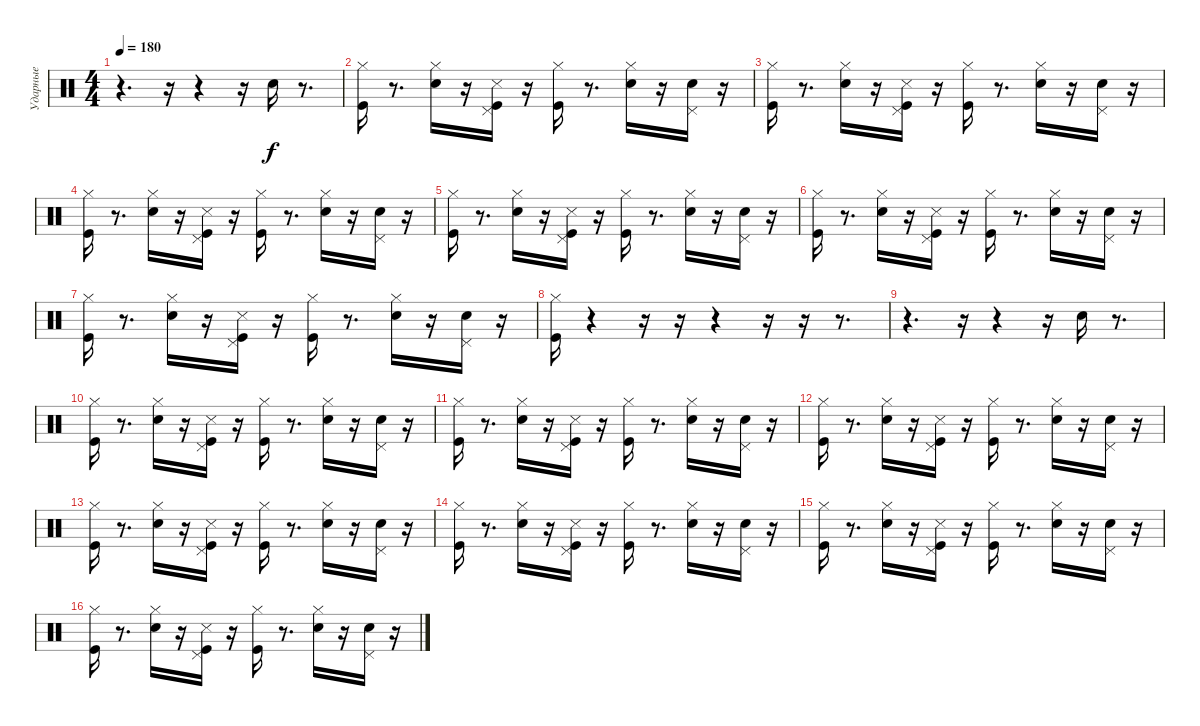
\track ("Ударные" "Ударные") {instrument percussion}
\staff {score}
\articulation defaults
\ts (4 4)
\tempo 180
\clef neutral
\ks c
r.4{d dy f} r.16 r.4 r.16 "Snare (hit) 2".16 r.8{d} |
("Hi-Hat (closed)" "Kick (hit)").16 r.8{d} ("Hi-Hat (closed)" "Snare (hit) 2").16 r.16 ("Snare (side stick) 3" "Kick (hit)" "Pedal Hi-Hat (hit)").16 r.16 ("Hi-Hat (closed)" "Kick (hit)").16 r.8{d} ("Hi-Hat (closed)" "Snare (hit) 2").16 r.16 ("Snare (hit) 2" "Pedal Hi-Hat (hit)").16 r.16 |
("Hi-Hat (closed)" "Kick (hit)").16 r.8{d} ("Hi-Hat (closed)" "Snare (hit) 2").16 r.16 ("Snare (side stick) 3" "Kick (hit)" "Pedal Hi-Hat (hit)").16 r.16 ("Hi-Hat (closed)" "Kick (hit)").16 r.8{d} ("Hi-Hat (closed)" "Snare (hit) 2").16 r.16 ("Snare (hit) 2" "Pedal Hi-Hat (hit)").16 r.16 |
("Hi-Hat (closed)" "Kick (hit)").16 r.8{d} ("Hi-Hat (closed)" "Snare (hit) 2").16 r.16 ("Snare (side stick) 3" "Kick (hit)" "Pedal Hi-Hat (hit)").16 r.16 ("Hi-Hat (closed)" "Kick (hit)").16 r.8{d} ("Hi-Hat (closed)" "Snare (hit) 2").16 r.16 ("Snare (hit) 2" "Pedal Hi-Hat (hit)").16 r.16 |
("Hi-Hat (closed)" "Kick (hit)").16 r.8{d} ("Hi-Hat (closed)" "Snare (hit) 2").16 r.16 ("Snare (side stick) 3" "Kick (hit)" "Pedal Hi-Hat (hit)").16 r.16 ("Hi-Hat (closed)" "Kick (hit)").16 r.8{d} ("Hi-Hat (closed)" "Snare (hit) 2").16 r.16 ("Snare (hit) 2" "Pedal Hi-Hat (hit)").16 r.16 |
("Hi-Hat (closed)" "Kick (hit)").16 r.8{d} ("Hi-Hat (closed)" "Snare (hit) 2").16 r.16 ("Snare (side stick) 3" "Kick (hit)" "Pedal Hi-Hat (hit)").16 r.16 ("Hi-Hat (closed)" "Kick (hit)").16 r.8{d} ("Hi-Hat (closed)" "Snare (hit) 2").16 r.16 ("Snare (hit) 2" "Pedal Hi-Hat (hit)").16 r.16 |
("Hi-Hat (closed)" "Kick (hit)").16 r.8{d} ("Hi-Hat (closed)" "Snare (hit) 2").16 r.16 ("Snare (side stick) 3" "Kick (hit)" "Pedal Hi-Hat (hit)").16 r.16 ("Hi-Hat (closed)" "Kick (hit)").16 r.8{d} ("Hi-Hat (closed)" "Snare (hit) 2").16 r.16 ("Snare (hit) 2" "Pedal Hi-Hat (hit)").16 r.16 |
("Hi-Hat (closed)" "Kick (hit)").16 r.4 r.16 r.16 r.4 r.16 r.16 r.8{d} |
r.4{d} r.16 r.4 r.16 "Snare (hit) 2".16 r.8{d} |
("Hi-Hat (closed)" "Kick (hit)").16 r.8{d} ("Hi-Hat (closed)" "Snare (hit) 2").16 r.16 ("Snare (side stick) 3" "Kick (hit)" "Pedal Hi-Hat (hit)").16 r.16 ("Hi-Hat (closed)" "Kick (hit)").16 r.8{d} ("Hi-Hat (closed)" "Snare (hit) 2").16 r.16 ("Snare (hit) 2" "Pedal Hi-Hat (hit)").16 r.16 |
("Hi-Hat (closed)" "Kick (hit)").16 r.8{d} ("Hi-Hat (closed)" "Snare (hit) 2").16 r.16 ("Snare (side stick) 3" "Kick (hit)" "Pedal Hi-Hat (hit)").16 r.16 ("Hi-Hat (closed)" "Kick (hit)").16 r.8{d} ("Hi-Hat (closed)" "Snare (hit) 2").16 r.16 ("Snare (hit) 2" "Pedal Hi-Hat (hit)").16 r.16 |
("Hi-Hat (closed)" "Kick (hit)").16 r.8{d} ("Hi-Hat (closed)" "Snare (hit) 2").16 r.16 ("Snare (side stick) 3" "Kick (hit)" "Pedal Hi-Hat (hit)").16 r.16 ("Hi-Hat (closed)" "Kick (hit)").16 r.8{d} ("Hi-Hat (closed)" "Snare (hit) 2").16 r.16 ("Snare (hit) 2" "Pedal Hi-Hat (hit)").16 r.16 |
("Hi-Hat (closed)" "Kick (hit)").16 r.8{d} ("Hi-Hat (closed)" "Snare (hit) 2").16 r.16 ("Snare (side stick) 3" "Kick (hit)" "Pedal Hi-Hat (hit)").16 r.16 ("Hi-Hat (closed)" "Kick (hit)").16 r.8{d} ("Hi-Hat (closed)" "Snare (hit) 2").16 r.16 ("Snare (hit) 2" "Pedal Hi-Hat (hit)").16 r.16 |
("Hi-Hat (closed)" "Kick (hit)").16 r.8{d} ("Hi-Hat (closed)" "Snare (hit) 2").16 r.16 ("Snare (side stick) 3" "Kick (hit)" "Pedal Hi-Hat (hit)").16 r.16 ("Hi-Hat (closed)" "Kick (hit)").16 r.8{d} ("Hi-Hat (closed)" "Snare (hit) 2").16 r.16 ("Snare (hit) 2" "Pedal Hi-Hat (hit)").16 r.16 |
("Hi-Hat (closed)" "Kick (hit)").16 r.8{d} ("Hi-Hat (closed)" "Snare (hit) 2").16 r.16 ("Snare (side stick) 3" "Kick (hit)" "Pedal Hi-Hat (hit)").16 r.16 ("Hi-Hat (closed)" "Kick (hit)").16 r.8{d} ("Hi-Hat (closed)" "Snare (hit) 2").16 r.16 ("Snare (hit) 2" "Pedal Hi-Hat (hit)").16 r.16 |
("Hi-Hat (closed)" "Kick (hit)").16 r.8{d} ("Hi-Hat (closed)" "Snare (hit) 2").16 r.16 ("Snare (side stick) 3" "Kick (hit)" "Pedal Hi-Hat (hit)").16 r.16 ("Hi-Hat (closed)" "Kick (hit)").16 r.8{d} ("Hi-Hat (closed)" "Snare (hit) 2").16 r.16 ("Snare (hit) 2" "Pedal Hi-Hat (hit)").16 r.16
